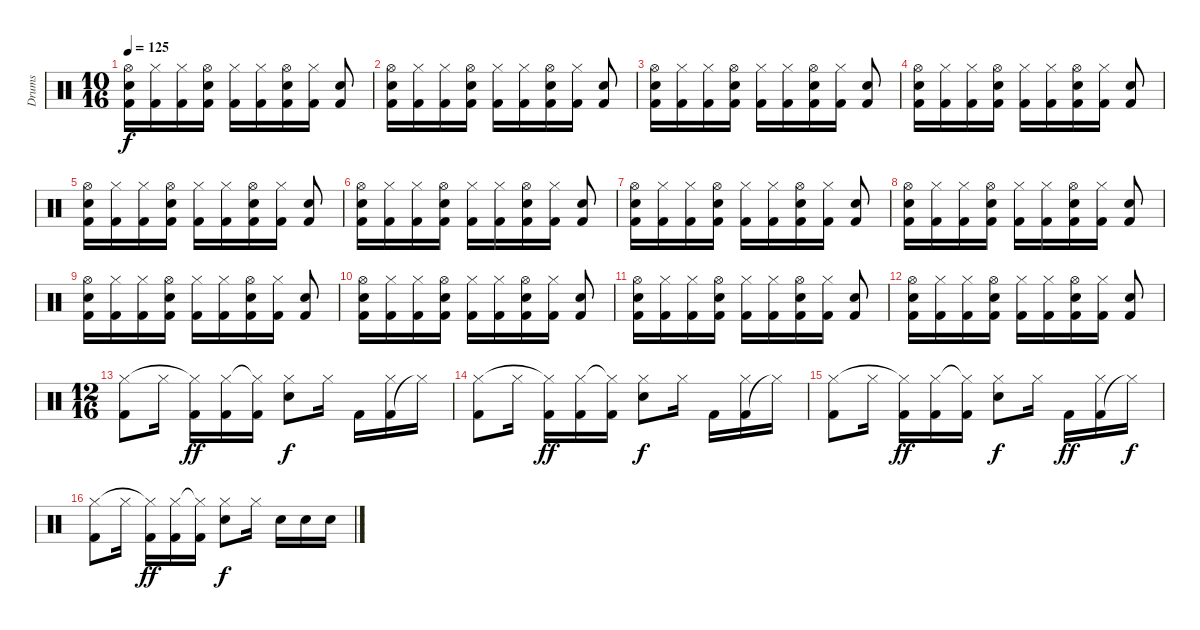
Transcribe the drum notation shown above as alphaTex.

\track ("Drums" "Drums") {instrument percussion}
\staff {score}
\articulation defaults
\ts (10 16)
\tempo 125
\clef neutral
\ks c
("Kick (hit) 2" "Electric Snare (hit)" "Hi-Hat (open)").16{dy f} ("Kick (hit) 2" "Hi-Hat (closed)").16 ("Kick (hit) 2" "Hi-Hat (closed)").16 ("Kick (hit) 2" "Electric Snare (hit)" "Hi-Hat (open)").16 ("Kick (hit) 2" "Hi-Hat (closed)").16 ("Kick (hit) 2" "Hi-Hat (closed)").16 ("Kick (hit) 2" "Electric Snare (hit)" "Hi-Hat (open)").16 ("Kick (hit) 2" "Hi-Hat (closed)").16 ("Kick (hit) 2" "Electric Snare (hit)").8 |
("Kick (hit) 2" "Electric Snare (hit)" "Hi-Hat (open)").16 ("Kick (hit) 2" "Hi-Hat (closed)").16 ("Kick (hit) 2" "Hi-Hat (closed)").16 ("Kick (hit) 2" "Electric Snare (hit)" "Hi-Hat (open)").16 ("Kick (hit) 2" "Hi-Hat (closed)").16 ("Kick (hit) 2" "Hi-Hat (closed)").16 ("Kick (hit) 2" "Electric Snare (hit)" "Hi-Hat (open)").16 ("Kick (hit) 2" "Hi-Hat (closed)").16 ("Kick (hit) 2" "Electric Snare (hit)").8 |
("Kick (hit) 2" "Electric Snare (hit)" "Hi-Hat (open)").16 ("Kick (hit) 2" "Hi-Hat (closed)").16 ("Kick (hit) 2" "Hi-Hat (closed)").16 ("Kick (hit) 2" "Electric Snare (hit)" "Hi-Hat (open)").16 ("Kick (hit) 2" "Hi-Hat (closed)").16 ("Kick (hit) 2" "Hi-Hat (closed)").16 ("Kick (hit) 2" "Electric Snare (hit)" "Hi-Hat (open)").16 ("Kick (hit) 2" "Hi-Hat (closed)").16 ("Kick (hit) 2" "Electric Snare (hit)").8 |
("Kick (hit) 2" "Electric Snare (hit)" "Hi-Hat (open)").16 ("Kick (hit) 2" "Hi-Hat (closed)").16 ("Kick (hit) 2" "Hi-Hat (closed)").16 ("Kick (hit) 2" "Electric Snare (hit)" "Hi-Hat (open)").16 ("Kick (hit) 2" "Hi-Hat (closed)").16 ("Kick (hit) 2" "Hi-Hat (closed)").16 ("Kick (hit) 2" "Electric Snare (hit)" "Hi-Hat (open)").16 ("Kick (hit) 2" "Hi-Hat (closed)").16 ("Kick (hit) 2" "Electric Snare (hit)").8 |
("Kick (hit) 2" "Electric Snare (hit)" "Hi-Hat (open)").16 ("Kick (hit) 2" "Hi-Hat (closed)").16 ("Kick (hit) 2" "Hi-Hat (closed)").16 ("Kick (hit) 2" "Electric Snare (hit)" "Hi-Hat (open)").16 ("Kick (hit) 2" "Hi-Hat (closed)").16 ("Kick (hit) 2" "Hi-Hat (closed)").16 ("Kick (hit) 2" "Electric Snare (hit)" "Hi-Hat (open)").16 ("Kick (hit) 2" "Hi-Hat (closed)").16 ("Kick (hit) 2" "Electric Snare (hit)").8 |
("Kick (hit) 2" "Electric Snare (hit)" "Hi-Hat (open)").16 ("Kick (hit) 2" "Hi-Hat (closed)").16 ("Kick (hit) 2" "Hi-Hat (closed)").16 ("Kick (hit) 2" "Electric Snare (hit)" "Hi-Hat (open)").16 ("Kick (hit) 2" "Hi-Hat (closed)").16 ("Kick (hit) 2" "Hi-Hat (closed)").16 ("Kick (hit) 2" "Electric Snare (hit)" "Hi-Hat (open)").16 ("Kick (hit) 2" "Hi-Hat (closed)").16 ("Kick (hit) 2" "Electric Snare (hit)").8 |
("Kick (hit) 2" "Electric Snare (hit)" "Hi-Hat (open)").16 ("Kick (hit) 2" "Hi-Hat (closed)").16 ("Kick (hit) 2" "Hi-Hat (closed)").16 ("Kick (hit) 2" "Electric Snare (hit)" "Hi-Hat (open)").16 ("Kick (hit) 2" "Hi-Hat (closed)").16 ("Kick (hit) 2" "Hi-Hat (closed)").16 ("Kick (hit) 2" "Electric Snare (hit)" "Hi-Hat (open)").16 ("Kick (hit) 2" "Hi-Hat (closed)").16 ("Kick (hit) 2" "Electric Snare (hit)").8 |
("Kick (hit) 2" "Electric Snare (hit)" "Hi-Hat (open)").16 ("Kick (hit) 2" "Hi-Hat (closed)").16 ("Kick (hit) 2" "Hi-Hat (closed)").16 ("Kick (hit) 2" "Electric Snare (hit)" "Hi-Hat (open)").16 ("Kick (hit) 2" "Hi-Hat (closed)").16 ("Kick (hit) 2" "Hi-Hat (closed)").16 ("Kick (hit) 2" "Electric Snare (hit)" "Hi-Hat (open)").16 ("Kick (hit) 2" "Hi-Hat (closed)").16 ("Kick (hit) 2" "Electric Snare (hit)").8 |
("Kick (hit) 2" "Electric Snare (hit)" "Hi-Hat (open)").16 ("Kick (hit) 2" "Hi-Hat (closed)").16 ("Kick (hit) 2" "Hi-Hat (closed)").16 ("Kick (hit) 2" "Electric Snare (hit)" "Hi-Hat (open)").16 ("Kick (hit) 2" "Hi-Hat (closed)").16 ("Kick (hit) 2" "Hi-Hat (closed)").16 ("Kick (hit) 2" "Electric Snare (hit)" "Hi-Hat (open)").16 ("Kick (hit) 2" "Hi-Hat (closed)").16 ("Kick (hit) 2" "Electric Snare (hit)").8 |
("Kick (hit) 2" "Electric Snare (hit)" "Hi-Hat (open)").16 ("Kick (hit) 2" "Hi-Hat (closed)").16 ("Kick (hit) 2" "Hi-Hat (closed)").16 ("Kick (hit) 2" "Electric Snare (hit)" "Hi-Hat (open)").16 ("Kick (hit) 2" "Hi-Hat (closed)").16 ("Kick (hit) 2" "Hi-Hat (closed)").16 ("Kick (hit) 2" "Electric Snare (hit)" "Hi-Hat (open)").16 ("Kick (hit) 2" "Hi-Hat (closed)").16 ("Kick (hit) 2" "Electric Snare (hit)").8 |
("Kick (hit) 2" "Electric Snare (hit)" "Hi-Hat (open)").16 ("Kick (hit) 2" "Hi-Hat (closed)").16 ("Kick (hit) 2" "Hi-Hat (closed)").16 ("Kick (hit) 2" "Electric Snare (hit)" "Hi-Hat (open)").16 ("Kick (hit) 2" "Hi-Hat (closed)").16 ("Kick (hit) 2" "Hi-Hat (closed)").16 ("Kick (hit) 2" "Electric Snare (hit)" "Hi-Hat (open)").16 ("Kick (hit) 2" "Hi-Hat (closed)").16 ("Kick (hit) 2" "Electric Snare (hit)").8 |
("Kick (hit) 2" "Electric Snare (hit)" "Hi-Hat (open)").16 ("Kick (hit) 2" "Hi-Hat (closed)").16 ("Kick (hit) 2" "Hi-Hat (closed)").16 ("Kick (hit) 2" "Electric Snare (hit)" "Hi-Hat (open)").16 ("Kick (hit) 2" "Hi-Hat (closed)").16 ("Kick (hit) 2" "Hi-Hat (closed)").16 ("Kick (hit) 2" "Electric Snare (hit)" "Hi-Hat (open)").16 ("Kick (hit) 2" "Hi-Hat (closed)").16 ("Kick (hit) 2" "Electric Snare (hit)").8 |
\ts (12 16)
("Kick (hit) 2" "Hi-Hat (closed)").8 "Hi-Hat (closed)".16 ("Kick (hit) 2" "Hi-Hat (closed)"{t}).16{dy ff} ("Kick (hit) 2" "Hi-Hat (closed)").16 ("Kick (hit) 2" "Hi-Hat (closed)"{t}).16 ("Electric Snare (hit)" "Hi-Hat (closed)").8{dy f} "Hi-Hat (closed)".16 "Kick (hit) 2".16 ("Kick (hit) 2" "Hi-Hat (closed)").16 "Hi-Hat (closed)"{t}.16 |
("Kick (hit) 2" "Hi-Hat (closed)").8 "Hi-Hat (closed)".16 ("Kick (hit) 2" "Hi-Hat (closed)"{t}).16{dy ff} ("Kick (hit) 2" "Hi-Hat (closed)").16 ("Kick (hit) 2" "Hi-Hat (closed)"{t}).16 ("Electric Snare (hit)" "Hi-Hat (closed)").8{dy f} "Hi-Hat (closed)".16 "Kick (hit) 2".16 ("Kick (hit) 2" "Hi-Hat (closed)").16 "Hi-Hat (closed)"{t}.16 |
("Kick (hit) 2" "Hi-Hat (closed)").8 "Hi-Hat (closed)".16 ("Kick (hit) 2" "Hi-Hat (closed)"{t}).16{dy ff} ("Kick (hit) 2" "Hi-Hat (closed)").16 ("Kick (hit) 2" "Hi-Hat (closed)"{t}).16 ("Electric Snare (hit)" "Hi-Hat (closed)").8{dy f} "Hi-Hat (closed)".16 "Kick (hit) 2".16{dy ff} ("Kick (hit) 2" "Hi-Hat (closed)").16 "Hi-Hat (closed)"{t}.16{dy f} |
("Kick (hit) 2" "Hi-Hat (closed)").8 "Hi-Hat (closed)".16 ("Kick (hit) 2" "Hi-Hat (closed)"{t}).16{dy ff} ("Kick (hit) 2" "Hi-Hat (closed)").16 ("Kick (hit) 2" "Hi-Hat (closed)"{t}).16 ("Electric Snare (hit)" "Hi-Hat (closed)").8{dy f} "Hi-Hat (closed)".16 "Electric Snare (hit)".16 "Electric Snare (hit)".16 "Electric Snare (hit)".16
